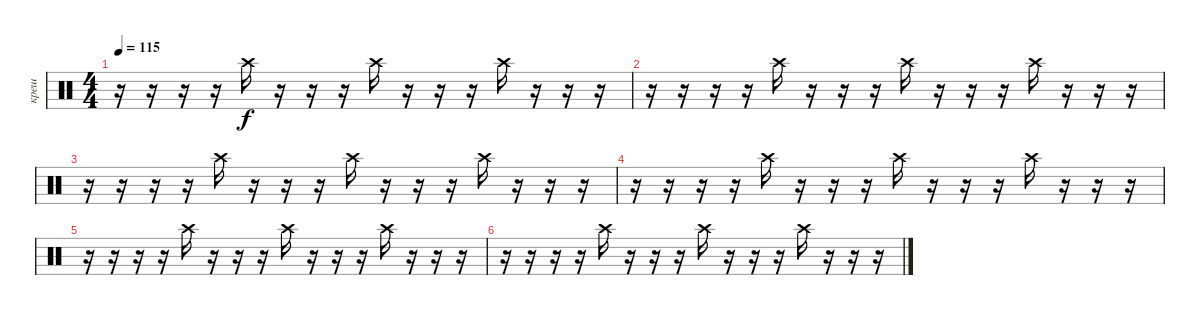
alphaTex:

\track ("креш" "креш") {mute instrument percussion}
\staff {score}
\articulation defaults
\ts (4 4)
\tempo 115
\clef neutral
\ks c
r.16{dy f} r.16 r.16 r.16 "Crash high (hit)".16 r.16 r.16 r.16 "Crash high (hit)".16 r.16 r.16 r.16 "Crash high (hit)".16 r.16 r.16 r.16 |
r.16 r.16 r.16 r.16 "Crash high (hit)".16 r.16 r.16 r.16 "Crash high (hit)".16 r.16 r.16 r.16 "Crash high (hit)".16 r.16 r.16 r.16 |
r.16 r.16 r.16 r.16 "Crash high (hit)".16 r.16 r.16 r.16 "Crash high (hit)".16 r.16 r.16 r.16 "Crash high (hit)".16 r.16 r.16 r.16 |
r.16 r.16 r.16 r.16 "Crash high (hit)".16 r.16 r.16 r.16 "Crash high (hit)".16 r.16 r.16 r.16 "Crash high (hit)".16 r.16 r.16 r.16 |
r.16 r.16 r.16 r.16 "Crash high (hit)".16 r.16 r.16 r.16 "Crash high (hit)".16 r.16 r.16 r.16 "Crash high (hit)".16 r.16 r.16 r.16 |
r.16 r.16 r.16 r.16 "Crash high (hit)".16 r.16 r.16 r.16 "Crash high (hit)".16 r.16 r.16 r.16 "Crash high (hit)".16 r.16 r.16 r.16
